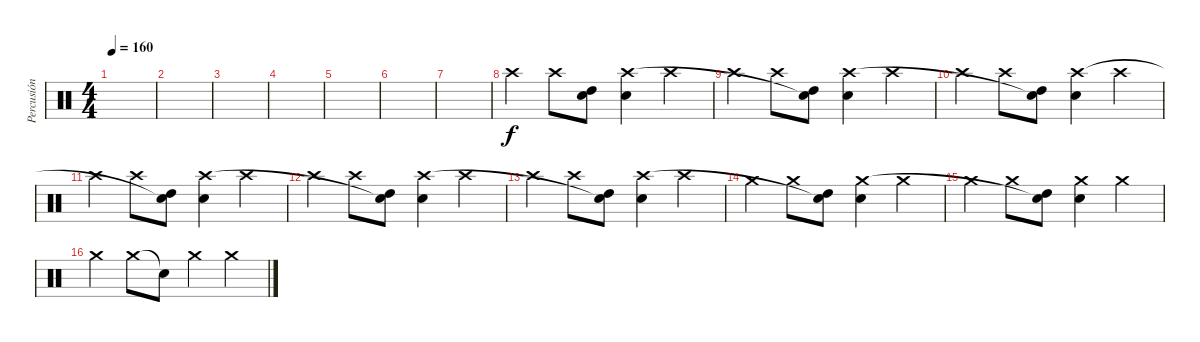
\track ("Percusión" "Percusión") {instrument percussion}
\staff {score}
\articulation defaults
\ts (4 4)
\tempo 160
\clef neutral
\ks c
|
|
|
|
|
|
|
"Crash high (hit)".4 "Crash high (hit)".8 ("High Tom (hit)" "Snare (hit)").8 ("Electric Snare (hit)" "Crash high (hit)").4 "Crash high (hit)".4 |
"Crash high (hit)".4 "Crash high (hit)".8 ("High Tom (hit)" "Snare (hit)"{t}).8 ("Electric Snare (hit)" "Crash high (hit)").4 "Crash high (hit)".4 |
"Crash high (hit)".4 "Crash high (hit)".8 ("High Tom (hit)" "Snare (hit)"{t}).8 ("Electric Snare (hit)" "Crash high (hit)").4 "Crash high (hit)".4 |
"Crash high (hit)".4 "Crash high (hit)".8 ("High Tom (hit)" "Snare (hit)"{t}).8 ("Electric Snare (hit)" "Crash high (hit)").4 "Crash high (hit)".4 |
"Crash high (hit)".4 "Crash high (hit)".8 ("High Tom (hit)" "Snare (hit)"{t}).8 ("Electric Snare (hit)" "Crash high (hit)").4 "Crash high (hit)".4 |
"Crash high (hit)".4 "Crash high (hit)".8 ("High Tom (hit)" "Snare (hit)"{t}).8 ("Electric Snare (hit)" "Crash high (hit)").4 "Crash high (hit)".4 |
"Crash medium (hit)".4 "Crash medium (hit)".8 ("High Tom (hit)" "Snare (hit)"{t}).8 ("Electric Snare (hit)" "Crash medium (hit)").4 "Crash medium (hit)".4 |
"Crash medium (hit)".4 "Crash medium (hit)".8 ("High Tom (hit)" "Snare (hit)"{t}).8 ("Electric Snare (hit)" "Crash medium (hit)").4 "Crash medium (hit)".4 |
"Crash medium (hit)".4 "Crash medium (hit)".8 "Snare (hit)"{t}.8 "Crash medium (hit)".4 "Crash medium (hit)".4
